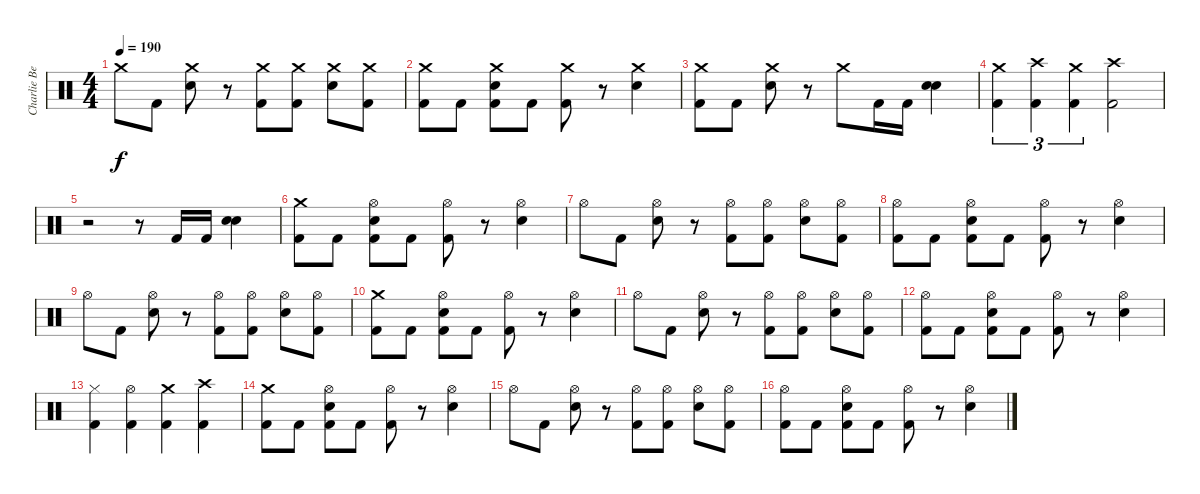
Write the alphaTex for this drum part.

\track ("Charlie Benante" "Charlie Be") {instrument percussion}
\staff {score}
\articulation defaults
\ts (4 4)
\tempo 190
\clef neutral
\ks c "Crash medium (hit)".8{dy f} "Kick (hit) 2".8
("Snare (hit) 2" "Crash medium (hit)").8 r.8 ("Crash medium (hit)" "Kick (hit) 2").8 ("Crash medium (hit)" "Kick (hit) 2").8 ("Snare (hit) 2" "Crash medium (hit)").8 ("Crash medium (hit)" "Kick (hit) 2").8 |
("Crash medium (hit)" "Kick (hit) 2").8 "Kick (hit) 2".8 ("Snare (hit) 2" "Crash medium (hit)" "Kick (hit) 2").8 "Kick (hit) 2".8 ("Crash medium (hit)" "Kick (hit) 2").8 r.8 ("Snare (hit) 2" "Crash medium (hit)").4 |
("Crash medium (hit)" "Kick (hit) 2").8 "Kick (hit) 2".8 ("Snare (hit) 2" "Crash medium (hit)").8 r.8 "Crash medium (hit)".8 "Kick (hit) 2".16 "Kick (hit) 2".16 ("Electric Snare (hit)" "Snare (hit) 2").4 |
("Crash medium (hit)" "Kick (hit) 2").4{tu (3 2)} ("Crash high (hit)" "Kick (hit) 2").4{tu (3 2)} ("Crash medium (hit)" "Kick (hit) 2").4{tu (3 2)} ("Crash high (hit)" "Kick (hit) 2").2 |
r.2 r.8 "Kick (hit) 2".16 "Kick (hit) 2".16 ("Electric Snare (hit)" "Snare (hit) 2").4 |
("Crash medium (hit)" "Kick (hit) 2").8 "Kick (hit) 2".8 ("Snare (hit) 2" "Hi-Hat (open)" "Kick (hit) 2").8 "Kick (hit) 2".8 ("Hi-Hat (open)" "Kick (hit) 2").8 r.8 ("Snare (hit) 2" "Hi-Hat (open)").4 |
"Hi-Hat (open)".8 "Kick (hit) 2".8 ("Snare (hit) 2" "Hi-Hat (open)").8 r.8 ("Hi-Hat (open)" "Kick (hit) 2").8 ("Hi-Hat (open)" "Kick (hit) 2").8 ("Snare (hit) 2" "Hi-Hat (open)").8 ("Hi-Hat (open)" "Kick (hit) 2").8 |
("Hi-Hat (open)" "Kick (hit) 2").8 "Kick (hit) 2".8 ("Snare (hit) 2" "Hi-Hat (open)" "Kick (hit) 2").8 "Kick (hit) 2".8 ("Hi-Hat (open)" "Kick (hit) 2").8 r.8 ("Snare (hit) 2" "Hi-Hat (open)").4 |
"Hi-Hat (open)".8 "Kick (hit) 2".8 ("Snare (hit) 2" "Hi-Hat (open)").8 r.8 ("Hi-Hat (open)" "Kick (hit) 2").8 ("Hi-Hat (open)" "Kick (hit) 2").8 ("Snare (hit) 2" "Hi-Hat (open)").8 ("Hi-Hat (open)" "Kick (hit) 2").8 |
("Crash medium (hit)" "Kick (hit) 2").8 "Kick (hit) 2".8 ("Snare (hit) 2" "Hi-Hat (open)" "Kick (hit) 2").8 "Kick (hit) 2".8 ("Hi-Hat (open)" "Kick (hit) 2").8 r.8 ("Snare (hit) 2" "Hi-Hat (open)").4 |
"Hi-Hat (open)".8 "Kick (hit) 2".8 ("Snare (hit) 2" "Hi-Hat (open)").8 r.8 ("Hi-Hat (open)" "Kick (hit) 2").8 ("Hi-Hat (open)" "Kick (hit) 2").8 ("Snare (hit) 2" "Hi-Hat (open)").8 ("Hi-Hat (open)" "Kick (hit) 2").8 |
("Hi-Hat (open)" "Kick (hit) 2").8 "Kick (hit) 2".8 ("Snare (hit) 2" "Hi-Hat (open)" "Kick (hit) 2").8 "Kick (hit) 2".8 ("Hi-Hat (open)" "Kick (hit) 2").8 r.8 ("Snare (hit) 2" "Hi-Hat (open)").4 |
("Hi-Hat (closed)" "Kick (hit) 2").4 ("Hi-Hat (open)" "Kick (hit) 2").4 ("Crash medium (hit)" "Kick (hit) 2").4 ("Crash high (hit)" "Kick (hit) 2").4 |
("Crash medium (hit)" "Kick (hit) 2").8 "Kick (hit) 2".8 ("Snare (hit) 2" "Hi-Hat (open)" "Kick (hit) 2").8 "Kick (hit) 2".8 ("Hi-Hat (open)" "Kick (hit) 2").8 r.8 ("Snare (hit) 2" "Hi-Hat (open)").4 |
"Hi-Hat (open)".8 "Kick (hit) 2".8 ("Snare (hit) 2" "Hi-Hat (open)").8 r.8 ("Hi-Hat (open)" "Kick (hit) 2").8 ("Hi-Hat (open)" "Kick (hit) 2").8 ("Snare (hit) 2" "Hi-Hat (open)").8 ("Hi-Hat (open)" "Kick (hit) 2").8 |
("Hi-Hat (open)" "Kick (hit) 2").8 "Kick (hit) 2".8 ("Snare (hit) 2" "Hi-Hat (open)" "Kick (hit) 2").8 "Kick (hit) 2".8 ("Hi-Hat (open)" "Kick (hit) 2").8 r.8 ("Snare (hit) 2" "Hi-Hat (open)").4
